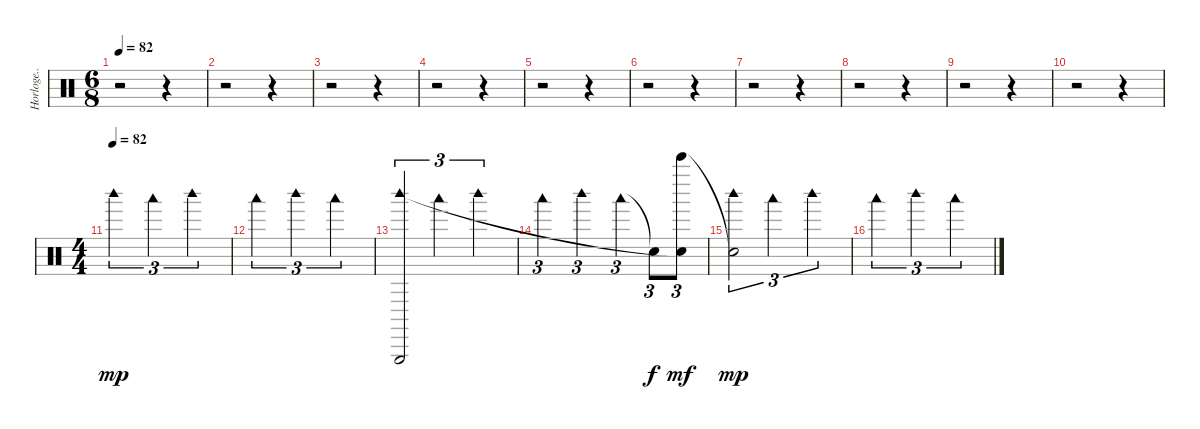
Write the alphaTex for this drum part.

\track ("Horloge.." "Horloge..") {instrument percussion}
\staff {score}
\articulation defaults
\ts (6 8)
\tempo 82
\clef neutral
\ks c
r.2{dy mp} r.4 |
r.2 r.4 |
r.2 r.4 |
r.2 r.4 |
r.2 r.4 |
r.2 r.4 |
r.2 r.4 |
r.2 r.4 |
r.2 r.4 |
r.2 r.4 |
\ts (4 4)
\tempo (82)
"Woodblock high (hit)".2{tu (3 2)} "Woodblock low (hit)".2{tu (3 2)} "Woodblock high (hit)".2{tu (3 2)} |
"Woodblock low (hit)".2{tu (3 2)} "Woodblock high (hit)".2{tu (3 2)} "Woodblock low (hit)".2{tu (3 2)} |
("Triangle (hit)" "Woodblock high (hit)").2{tu (3 2)} "Woodblock low (hit)".2{tu (3 2)} "Woodblock high (hit)".2{tu (3 2)} |
"Woodblock low (hit)".2{tu (3 2)} "Woodblock high (hit)".2{tu (3 2)} "Woodblock low (hit)".4{tu (3 2)} "Snare (hit)"{t}.8{tu (3 2) dy f} ("Bell Tree (hit)" "Snare (hit)"{t}).8{tu (3 2) dy mf} |
("Snare (hit)"{t} "Woodblock high (hit)").2{tu (3 2) dy mp} "Woodblock low (hit)".2{tu (3 2)} "Woodblock high (hit)".2{tu (3 2)} |
"Woodblock low (hit)".2{tu (3 2)} "Woodblock high (hit)".2{tu (3 2)} "Woodblock low (hit)".2{tu (3 2)}
